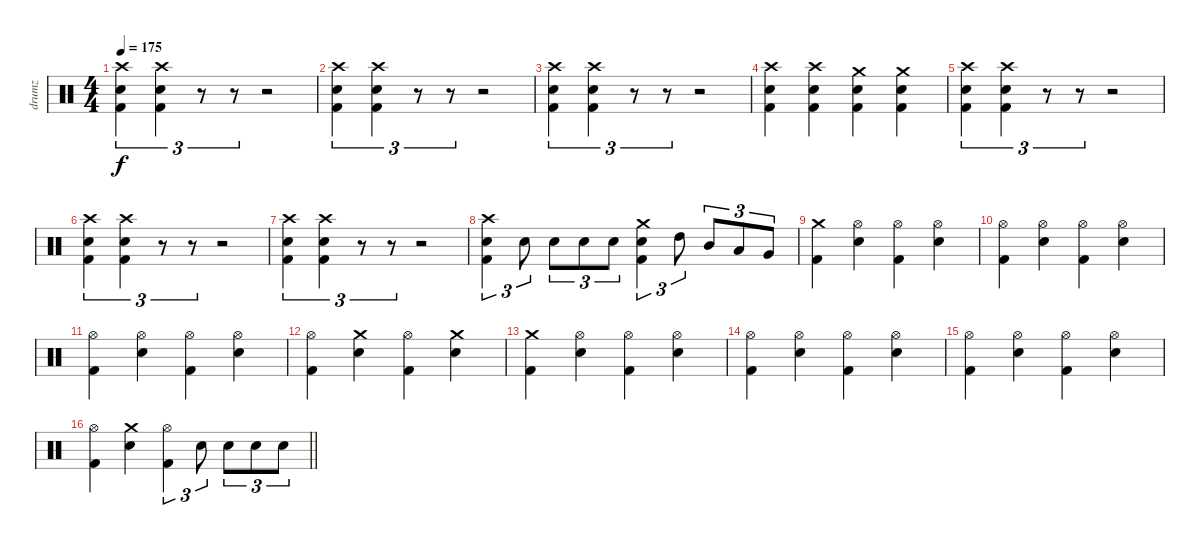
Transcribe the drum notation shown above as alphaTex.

\track ("drumz" "drumz") {instrument percussion}
\staff {score}
\articulation defaults
\ts (4 4)
\tempo 175
\clef neutral
\ks c
("Crash high (hit)" "Electric Snare (hit)" "Kick (hit) 2").4{tu (3 2) dy f} ("Crash high (hit)" "Electric Snare (hit)" "Kick (hit) 2").4{tu (3 2)} r.8{tu (3 2)} r.8{tu (3 2)} r.2 |
("Crash high (hit)" "Electric Snare (hit)" "Kick (hit) 2").4{tu (3 2)} ("Crash high (hit)" "Electric Snare (hit)" "Kick (hit) 2").4{tu (3 2)} r.8{tu (3 2)} r.8{tu (3 2)} r.2 |
("Crash high (hit)" "Electric Snare (hit)" "Kick (hit) 2").4{tu (3 2)} ("Crash high (hit)" "Electric Snare (hit)" "Kick (hit) 2").4{tu (3 2)} r.8{tu (3 2)} r.8{tu (3 2)} r.2 |
("Crash high (hit)" "Electric Snare (hit)" "Kick (hit) 2").4 ("Crash high (hit)" "Electric Snare (hit)" "Kick (hit) 2").4 ("Crash medium (hit)" "Electric Snare (hit)" "Kick (hit) 2").4 ("Crash medium (hit)" "Electric Snare (hit)" "Kick (hit) 2").4 |
("Crash high (hit)" "Electric Snare (hit)" "Kick (hit) 2").4{tu (3 2)} ("Crash high (hit)" "Electric Snare (hit)" "Kick (hit) 2").4{tu (3 2)} r.8{tu (3 2)} r.8{tu (3 2)} r.2 |
("Crash high (hit)" "Electric Snare (hit)" "Kick (hit) 2").4{tu (3 2)} ("Crash high (hit)" "Electric Snare (hit)" "Kick (hit) 2").4{tu (3 2)} r.8{tu (3 2)} r.8{tu (3 2)} r.2 |
("Crash high (hit)" "Electric Snare (hit)" "Kick (hit) 2").4{tu (3 2)} ("Crash high (hit)" "Electric Snare (hit)" "Kick (hit) 2").4{tu (3 2)} r.8{tu (3 2)} r.8{tu (3 2)} r.2 |
("Crash high (hit)" "Electric Snare (hit)" "Kick (hit) 2").4{tu (3 2)} "Electric Snare (hit)".8{tu (3 2)} "Electric Snare (hit)".8{tu (3 2)} "Electric Snare (hit)".8{tu (3 2)} "Electric Snare (hit)".8{tu (3 2)} ("Crash medium (hit)" "Electric Snare (hit)" "Kick (hit) 2").4{tu (3 2)} "High Tom (hit)".8{tu (3 2)} "Mid Tom (hit)".8{tu (3 2)} "Low Tom (hit)".8{tu (3 2)} "Very Low Tom (hit)".8{tu (3 2)} |
("Crash medium (hit)" "Kick (hit) 2").4 ("Hi-Hat (open)" "Electric Snare (hit)").4 ("Hi-Hat (open)" "Kick (hit) 2").4 ("Hi-Hat (open)" "Electric Snare (hit)").4 |
("Hi-Hat (open)" "Kick (hit) 2").4 ("Hi-Hat (open)" "Electric Snare (hit)").4 ("Hi-Hat (open)" "Kick (hit) 2").4 ("Hi-Hat (open)" "Electric Snare (hit)").4 |
("Hi-Hat (open)" "Kick (hit) 2").4 ("Hi-Hat (open)" "Electric Snare (hit)").4 ("Hi-Hat (open)" "Kick (hit) 2").4 ("Hi-Hat (open)" "Electric Snare (hit)").4 |
("Hi-Hat (open)" "Kick (hit) 2").4 ("Crash medium (hit)" "Electric Snare (hit)").4 ("Hi-Hat (open)" "Kick (hit) 2").4 ("Crash medium (hit)" "Electric Snare (hit)").4 |
("Crash medium (hit)" "Kick (hit) 2").4 ("Hi-Hat (open)" "Electric Snare (hit)").4 ("Hi-Hat (open)" "Kick (hit) 2").4 ("Hi-Hat (open)" "Electric Snare (hit)").4 |
("Hi-Hat (open)" "Kick (hit) 2").4 ("Hi-Hat (open)" "Electric Snare (hit)").4 ("Hi-Hat (open)" "Kick (hit) 2").4 ("Hi-Hat (open)" "Electric Snare (hit)").4 |
("Hi-Hat (open)" "Kick (hit) 2").4 ("Hi-Hat (open)" "Electric Snare (hit)").4 ("Hi-Hat (open)" "Kick (hit) 2").4 ("Hi-Hat (open)" "Electric Snare (hit)").4 |
\barLineRight lightlight
("Hi-Hat (open)" "Kick (hit) 2").4 ("Crash medium (hit)" "Electric Snare (hit)").4 ("Hi-Hat (open)" "Kick (hit) 2").4{tu (3 2)} "Electric Snare (hit)".8{tu (3 2)} "Electric Snare (hit)".8{tu (3 2)} "Electric Snare (hit)".8{tu (3 2)} "Electric Snare (hit)".8{tu (3 2)}
